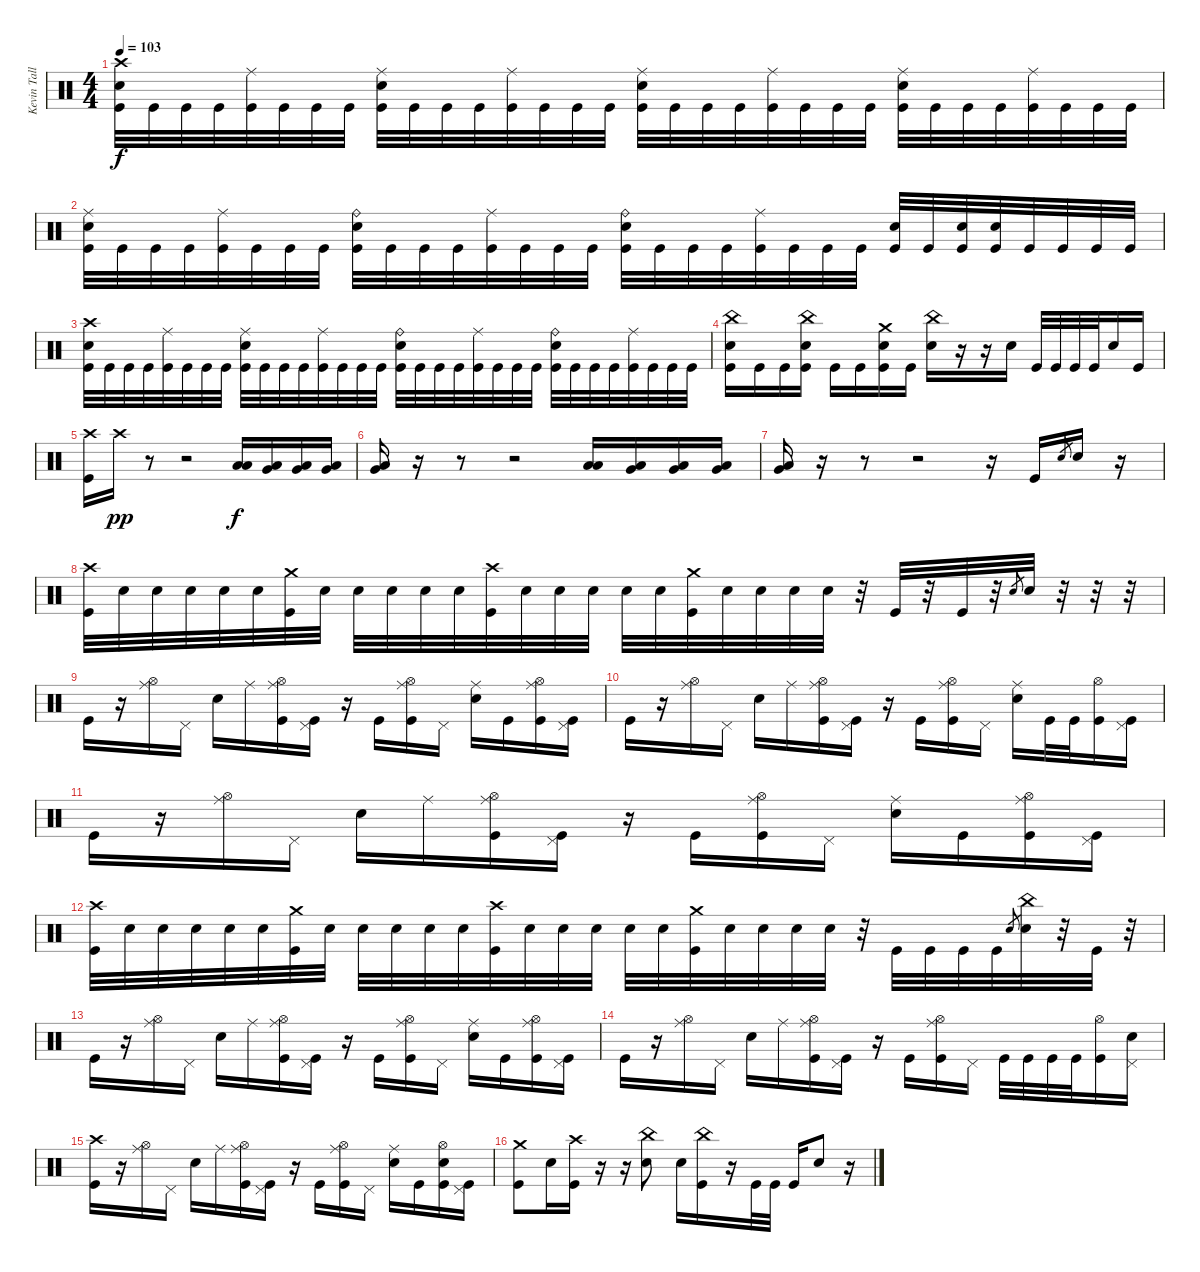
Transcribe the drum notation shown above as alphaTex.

\track ("Kevin Talley" "Kevin Tall") {instrument percussion}
\staff {score}
\articulation defaults
\ts (4 4)
\tempo 103
\clef neutral
\ks c
("Crash high (hit)" "Electric Snare (hit)" "Kick (hit)").32{dy f} "Kick (hit)".32 "Kick (hit)".32 "Kick (hit)".32 ("Ride (middle)" "Kick (hit)").32 "Kick (hit)".32 "Kick (hit)".32 "Kick (hit)".32 ("Ride (middle)" "Electric Snare (hit)" "Kick (hit)").32 "Kick (hit)".32 "Kick (hit)".32 "Kick (hit)".32 ("Ride (middle)" "Kick (hit)").32 "Kick (hit)".32 "Kick (hit)".32 "Kick (hit)".32 ("Ride (middle)" "Electric Snare (hit)" "Kick (hit)").32 "Kick (hit)".32 "Kick (hit)".32 "Kick (hit)".32 ("Ride (middle)" "Kick (hit)").32 "Kick (hit)".32 "Kick (hit)".32 "Kick (hit)".32 ("Ride (middle)" "Electric Snare (hit)" "Kick (hit)").32 "Kick (hit)".32 "Kick (hit)".32 "Kick (hit)".32 ("Ride (middle)" "Kick (hit)").32 "Kick (hit)".32 "Kick (hit)".32 "Kick (hit)".32 |
("Ride (middle)" "Electric Snare (hit)" "Kick (hit)").32 "Kick (hit)".32 "Kick (hit)".32 "Kick (hit)".32 ("Ride (middle)" "Kick (hit)").32 "Kick (hit)".32 "Kick (hit)".32 "Kick (hit)".32 ("Ride (bell)" "Electric Snare (hit)" "Kick (hit)").32 "Kick (hit)".32 "Kick (hit)".32 "Kick (hit)".32 ("Ride (middle)" "Kick (hit)").32 "Kick (hit)".32 "Kick (hit)".32 "Kick (hit)".32 ("Ride (bell)" "Electric Snare (hit)" "Kick (hit)").32 "Kick (hit)".32 "Kick (hit)".32 "Kick (hit)".32 ("Ride (middle)" "Kick (hit)").32 "Kick (hit)".32 "Kick (hit)".32 "Kick (hit)".32 ("Electric Snare (hit)" "Kick (hit)").32 "Kick (hit)".32 ("Electric Snare (hit)" "Kick (hit)").32 ("Electric Snare (hit)" "Kick (hit)").32 "Kick (hit)".32 "Kick (hit)".32 "Kick (hit)".32 "Kick (hit)".32 |
("Crash high (hit)" "Electric Snare (hit)" "Kick (hit)").32 "Kick (hit)".32 "Kick (hit)".32 "Kick (hit)".32 ("Ride (middle)" "Kick (hit)").32 "Kick (hit)".32 "Kick (hit)".32 "Kick (hit)".32 ("Ride (middle)" "Electric Snare (hit)" "Kick (hit)").32 "Kick (hit)".32 "Kick (hit)".32 "Kick (hit)".32 ("Ride (middle)" "Kick (hit)").32 "Kick (hit)".32 "Kick (hit)".32 "Kick (hit)".32 ("Ride (bell)" "Electric Snare (hit)" "Kick (hit)").32 "Kick (hit)".32 "Kick (hit)".32 "Kick (hit)".32 ("Ride (middle)" "Kick (hit)").32 "Kick (hit)".32 "Kick (hit)".32 "Kick (hit)".32 ("Ride (bell)" "Electric Snare (hit)" "Kick (hit)").32 "Kick (hit)".32 "Kick (hit)".32 "Kick (hit)".32 ("Ride (middle)" "Kick (hit)").32 "Kick (hit)".32 "Kick (hit)".32 "Kick (hit)".32 |
("China (hit)" "Electric Snare (hit)" "Kick (hit)").16 "Kick (hit)".16 "Kick (hit)".16 ("China (hit)" "Electric Snare (hit)" "Kick (hit)").16 "Kick (hit)".16 "Kick (hit)".16 ("Crash medium (hit)" "Electric Snare (hit)" "Kick (hit)").16 "Kick (hit)".16 ("China (hit)" "Electric Snare (hit)").16 r.16 r.16 "Electric Snare (hit)".16 "Kick (hit)".32 "Kick (hit)".32 "Kick (hit)".32 "Kick (hit)".32 "Electric Snare (hit)".16 "Kick (hit)".16 |
("Crash high (hit)" "Kick (hit)").16 "Crash high (hit)".16{dy pp} r.8 r.2 ("Low Tom (hit)" "Low Floor Tom (hit)").16{dy f} ("Very Low Tom (hit)" "Low Floor Tom (hit)").16 ("Very Low Tom (hit)" "Low Floor Tom (hit)").16 ("Very Low Tom (hit)" "Low Floor Tom (hit)").16 |
("Very Low Tom (hit)" "Low Floor Tom (hit)").16 r.16 r.8 r.2 ("Low Tom (hit)" "Low Floor Tom (hit)").16 ("Very Low Tom (hit)" "Low Floor Tom (hit)").16 ("Very Low Tom (hit)" "Low Floor Tom (hit)").16 ("Very Low Tom (hit)" "Low Floor Tom (hit)").16 |
("Very Low Tom (hit)" "Low Floor Tom (hit)").16 r.16 r.8 r.2 r.16 "Kick (hit)".16 "Electric Snare (hit)".8{gr} "Electric Snare (hit)".16 r.16 |
("Crash high (hit)" "Kick (hit)").32 "Electric Snare (hit)".32 "Electric Snare (hit)".32 "Electric Snare (hit)".32 "Electric Snare (hit)".32 "Electric Snare (hit)".32 ("Crash medium (hit)" "Kick (hit)").32 "Electric Snare (hit)".32 "Electric Snare (hit)".32 "Electric Snare (hit)".32 "Electric Snare (hit)".32 "Electric Snare (hit)".32 ("Crash high (hit)" "Kick (hit)").32 "Electric Snare (hit)".32 "Electric Snare (hit)".32 "Electric Snare (hit)".32 "Electric Snare (hit)".32 "Electric Snare (hit)".32 ("Crash medium (hit)" "Kick (hit)").32 "Electric Snare (hit)".32 "Electric Snare (hit)".32 "Electric Snare (hit)".32 "Electric Snare (hit)".32 r.32 "Kick (hit)".32 r.32 "Kick (hit)".32 r.32 "Electric Snare (hit)".8{gr} "Electric Snare (hit)".32 r.32 r.32 r.32 |
"Kick (hit)".16 r.16 ("Hi-Hat (open)" "Ride (middle)").16 "Pedal Hi-Hat (hit)".16 "Electric Snare (hit)".16 "Ride (middle)".16 ("Hi-Hat (open)" "Ride (middle)" "Kick (hit)").16 ("Pedal Hi-Hat (hit)" "Kick (hit)").16 r.16 "Kick (hit)".16 ("Hi-Hat (open)" "Ride (middle)" "Kick (hit)").16 "Pedal Hi-Hat (hit)".16 ("Ride (middle)" "Electric Snare (hit)").16 "Kick (hit)".16 ("Hi-Hat (open)" "Ride (middle)" "Kick (hit)").16 ("Pedal Hi-Hat (hit)" "Kick (hit)").16 |
"Kick (hit)".16 r.16 ("Hi-Hat (open)" "Ride (middle)").16 "Pedal Hi-Hat (hit)".16 "Electric Snare (hit)".16 "Ride (middle)".16 ("Hi-Hat (open)" "Ride (middle)" "Kick (hit)").16 ("Pedal Hi-Hat (hit)" "Kick (hit)").16 r.16 "Kick (hit)".16 ("Hi-Hat (open)" "Ride (middle)" "Kick (hit)").16 "Pedal Hi-Hat (hit)".16 ("Ride (middle)" "Electric Snare (hit)").16 "Kick (hit)".32 "Kick (hit)".32 ("Hi-Hat (open)" "Kick (hit)").16 ("Pedal Hi-Hat (hit)" "Kick (hit)").16 |
"Kick (hit)".16 r.16 ("Hi-Hat (open)" "Ride (middle)").16 "Pedal Hi-Hat (hit)".16 "Electric Snare (hit)".16 "Ride (middle)".16 ("Hi-Hat (open)" "Ride (middle)" "Kick (hit)").16 ("Pedal Hi-Hat (hit)" "Kick (hit)").16 r.16 "Kick (hit)".16 ("Hi-Hat (open)" "Ride (middle)" "Kick (hit)").16 "Pedal Hi-Hat (hit)".16 ("Ride (middle)" "Electric Snare (hit)").16 "Kick (hit)".16 ("Hi-Hat (open)" "Ride (middle)" "Kick (hit)").16 ("Pedal Hi-Hat (hit)" "Kick (hit)").16 |
("Crash high (hit)" "Kick (hit)").32 "Electric Snare (hit)".32 "Electric Snare (hit)".32 "Electric Snare (hit)".32 "Electric Snare (hit)".32 "Electric Snare (hit)".32 ("Crash medium (hit)" "Kick (hit)").32 "Electric Snare (hit)".32 "Electric Snare (hit)".32 "Electric Snare (hit)".32 "Electric Snare (hit)".32 "Electric Snare (hit)".32 ("Crash high (hit)" "Kick (hit)").32 "Electric Snare (hit)".32 "Electric Snare (hit)".32 "Electric Snare (hit)".32 "Electric Snare (hit)".32 "Electric Snare (hit)".32 ("Crash medium (hit)" "Kick (hit)").32 "Electric Snare (hit)".32 "Electric Snare (hit)".32 "Electric Snare (hit)".32 "Electric Snare (hit)".32 r.32 "Kick (hit)".32 "Kick (hit)".32 "Kick (hit)".32 "Kick (hit)".32 "Electric Snare (hit)".8{gr} ("China (hit)" "Electric Snare (hit)").32 r.32 "Kick (hit)".32 r.32 |
"Kick (hit)".16 r.16 ("Hi-Hat (open)" "Ride (middle)").16 "Pedal Hi-Hat (hit)".16 "Electric Snare (hit)".16 "Ride (middle)".16 ("Hi-Hat (open)" "Ride (middle)" "Kick (hit)").16 ("Pedal Hi-Hat (hit)" "Kick (hit)").16 r.16 "Kick (hit)".16 ("Hi-Hat (open)" "Ride (middle)" "Kick (hit)").16 "Pedal Hi-Hat (hit)".16 ("Ride (middle)" "Electric Snare (hit)").16 "Kick (hit)".16 ("Hi-Hat (open)" "Ride (middle)" "Kick (hit)").16 ("Pedal Hi-Hat (hit)" "Kick (hit)").16 |
"Kick (hit)".16 r.16 ("Hi-Hat (open)" "Ride (middle)").16 "Pedal Hi-Hat (hit)".16 "Electric Snare (hit)".16 "Ride (middle)".16 ("Hi-Hat (open)" "Ride (middle)" "Kick (hit)").16 ("Pedal Hi-Hat (hit)" "Kick (hit)").16 r.16 "Kick (hit)".16 ("Hi-Hat (open)" "Ride (middle)" "Kick (hit)").16 "Pedal Hi-Hat (hit)".16 "Kick (hit)".32 "Kick (hit)".32 "Kick (hit)".32 "Kick (hit)".32 ("Hi-Hat (open)" "Kick (hit)").16 ("Pedal Hi-Hat (hit)" "Electric Snare (hit)").16 |
("Crash high (hit)" "Kick (hit)").16 r.16 ("Hi-Hat (open)" "Ride (middle)").16 "Pedal Hi-Hat (hit)".16 "Electric Snare (hit)".16 "Ride (middle)".16 ("Hi-Hat (open)" "Ride (middle)" "Kick (hit)").16 ("Pedal Hi-Hat (hit)" "Kick (hit)").16 r.16 "Kick (hit)".16 ("Hi-Hat (open)" "Ride (middle)" "Kick (hit)").16 "Pedal Hi-Hat (hit)".16 ("Ride (middle)" "Electric Snare (hit)").16 "Kick (hit)".16 ("Hi-Hat (open)" "Electric Snare (hit)" "Kick (hit)").16 ("Pedal Hi-Hat (hit)" "Kick (hit)").16 |
("Crash medium (hit)" "Kick (hit)").8 "Electric Snare (hit)".16 ("Crash high (hit)" "Kick (hit)").16 r.16 r.16 ("China (hit)" "Electric Snare (hit)").8 "Electric Snare (hit)".16 ("China (hit)" "Kick (hit)").16 r.16 "Kick (hit)".32 "Kick (hit)".32 "Kick (hit)".16 "Electric Snare (hit)".8 r.16
